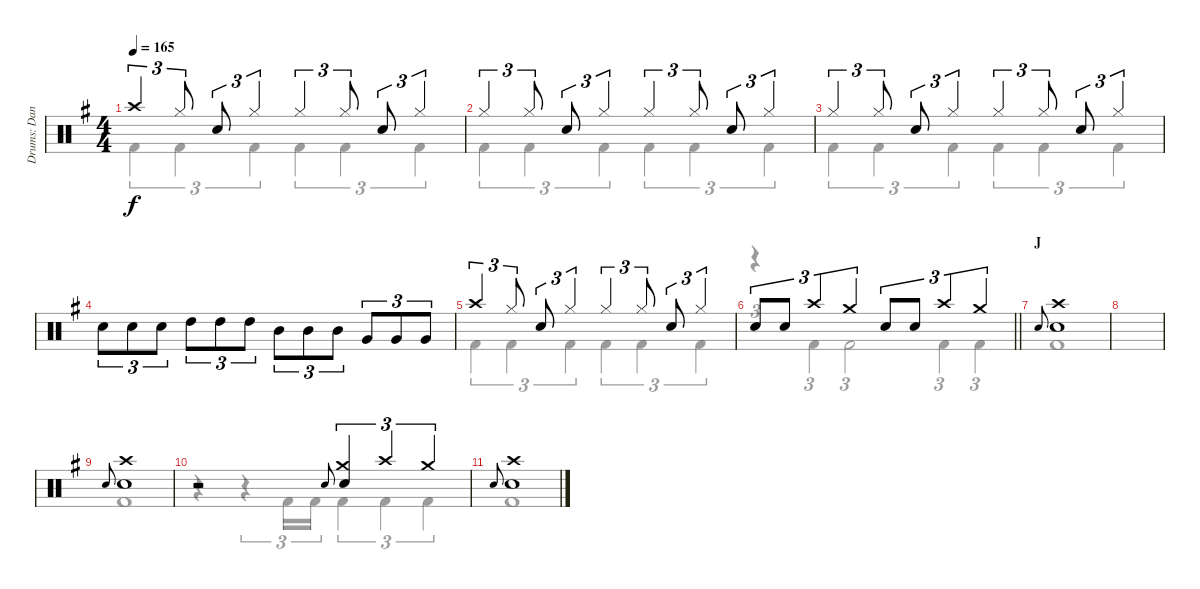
\track ("Drums: Dana" "Drums: Dan") {instrument percussion}
\staff {score}
\articulation defaults
\voice
\ts (4 4)
\tempo 165
\clef neutral
\ks g "Crash high (hit)".4{tu (3 2) dy f} "Hi-Hat (closed)".8{tu (3 2)} "Snare (hit) 2".8{tu (3 2)} "Hi-Hat (closed)".4{tu (3 2)} "Hi-Hat (closed)".4{tu (3 2)} "Hi-Hat (closed)".8{tu (3 2)} "Snare (hit) 2".8{tu (3 2)} "Hi-Hat (closed)".4{tu (3 2)}
|
"Hi-Hat (closed)".4{tu (3 2)} "Hi-Hat (closed)".8{tu (3 2)} "Snare (hit) 2".8{tu (3 2)} "Hi-Hat (closed)".4{tu (3 2)} "Hi-Hat (closed)".4{tu (3 2)} "Hi-Hat (closed)".8{tu (3 2)} "Snare (hit) 2".8{tu (3 2)} "Hi-Hat (closed)".4{tu (3 2)} |
"Hi-Hat (closed)".4{tu (3 2)} "Hi-Hat (closed)".8{tu (3 2)} "Snare (hit) 2".8{tu (3 2)} "Hi-Hat (closed)".4{tu (3 2)} "Hi-Hat (closed)".4{tu (3 2)} "Hi-Hat (closed)".8{tu (3 2)} "Snare (hit) 2".8{tu (3 2)} "Hi-Hat (closed)".4{tu (3 2)} |
"Snare (hit) 2".8{tu (3 2)} "Snare (hit) 2".8{tu (3 2)} "Snare (hit) 2".8{tu (3 2)} "High Tom (hit)".8{tu (3 2)} "High Tom (hit)".8{tu (3 2)} "High Tom (hit)".8{tu (3 2)} "Mid Tom (hit)".8{tu (3 2)} "Mid Tom (hit)".8{tu (3 2)} "Mid Tom (hit)".8{tu (3 2)} "Very Low Tom (hit)".8{tu (3 2)} "Very Low Tom (hit)".8{tu (3 2)} "Very Low Tom (hit)".8{tu (3 2)} |
"Crash high (hit)".4{tu (3 2)} "Hi-Hat (closed)".8{tu (3 2)} "Snare (hit) 2".8{tu (3 2)} "Hi-Hat (closed)".4{tu (3 2)} "Hi-Hat (closed)".4{tu (3 2)} "Hi-Hat (closed)".8{tu (3 2)} "Snare (hit) 2".8{tu (3 2)} "Hi-Hat (closed)".4{tu (3 2)} |
\barLineRight lightlight "Snare (hit) 2".8{tu (3 2)} "Snare (hit) 2".8{tu (3 2)} "Crash high (hit)".4{tu (3 2)} "Crash medium (hit)".4{tu (3 2)} "Snare (hit) 2".8{tu (3 2)} "Snare (hit) 2".8{tu (3 2)} "Crash high (hit)".4{tu (3 2)} "Crash medium (hit)".4{tu (3 2)}
|
\section ("" "J")
"Electric Snare (hit)".8{gr onbeat} ("Crash high (hit)" "Snare (hit) 2").1 |
|
"Electric Snare (hit)".8{gr onbeat} ("Crash high (hit)" "Snare (hit) 2").1 |
r.2 "Electric Snare (hit)".8{gr onbeat} ("Crash medium (hit)" "Snare (hit) 2").4{tu (3 2)} "Crash high (hit)".4{tu (3 2)} "Crash medium (hit)".4{tu (3 2)} |
"Electric Snare (hit)".8{gr onbeat} ("Crash high (hit)" "Snare (hit) 2").1
\voice
\clef neutral
\ottava regular
\simile none
\ks g "Kick (hit) 2".4{tu (3 2) dy f} "Kick (hit) 2".4{tu (3 2)} "Kick (hit) 2".4{tu (3 2)} "Kick (hit) 2".4{tu (3 2)} "Kick (hit) 2".4{tu (3 2)} "Kick (hit) 2".4{tu (3 2)}
|
"Kick (hit) 2".4{tu (3 2)} "Kick (hit) 2".4{tu (3 2)} "Kick (hit) 2".4{tu (3 2)} "Kick (hit) 2".4{tu (3 2)} "Kick (hit) 2".4{tu (3 2)} "Kick (hit) 2".4{tu (3 2)} |
"Kick (hit) 2".4{tu (3 2)} "Kick (hit) 2".4{tu (3 2)} "Kick (hit) 2".4{tu (3 2)} "Kick (hit) 2".4{tu (3 2)} "Kick (hit) 2".4{tu (3 2)} "Kick (hit) 2".4{tu (3 2)} |
|
"Kick (hit) 2".4{tu (3 2)} "Kick (hit) 2".4{tu (3 2)} "Kick (hit) 2".4{tu (3 2)} "Kick (hit) 2".4{tu (3 2)} "Kick (hit) 2".4{tu (3 2)} "Kick (hit) 2".4{tu (3 2)} |
\barLineRight lightlight
r.4{tu (3 2)} "Kick (hit) 2".4{tu (3 2)} "Kick (hit) 2".2{tu (3 2)} "Kick (hit) 2".4{tu (3 2)} "Kick (hit) 2".4{tu (3 2)} |
"Kick (hit) 2".1 |
|
"Kick (hit) 2".1 |
r.4 r.4{tu (3 2)} "Kick (hit) 2".16{tu (3 2)} "Kick (hit) 2".16{tu (3 2)} "Kick (hit) 2".4{tu (3 2)} "Kick (hit) 2".4{tu (3 2)} "Kick (hit) 2".4{tu (3 2)} |
"Kick (hit) 2".1
